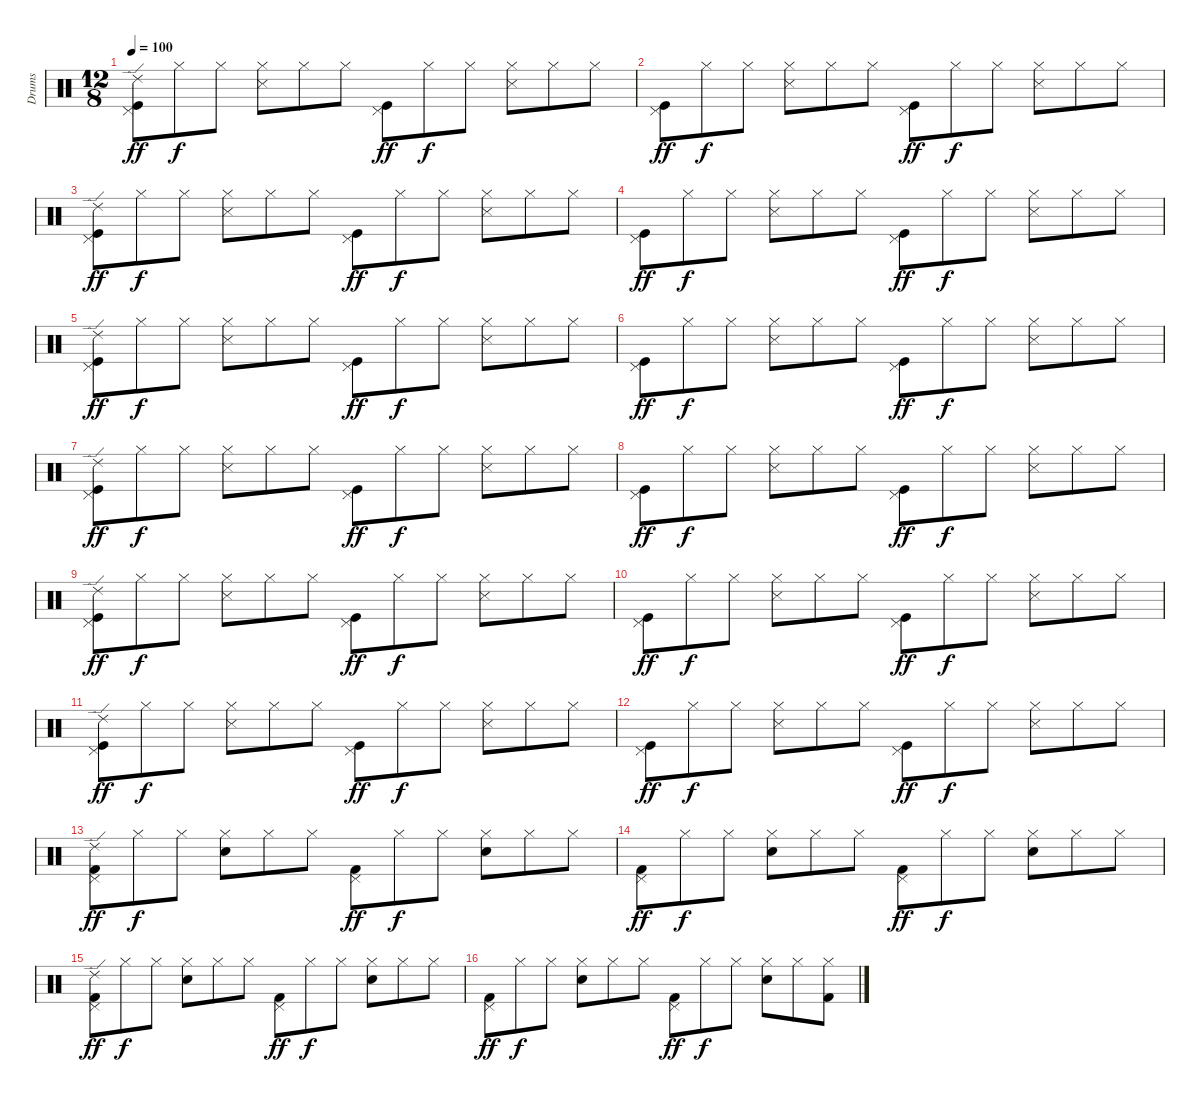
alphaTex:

\track ("Drums" "Drums") {instrument percussion}
\staff {score}
\articulation defaults
\ts (12 8)
\tempo 100
\clef neutral
\ks c
("Pedal Hi-Hat (hit)" "Ride (edge) 2" "Kick (hit)").8{dy ff} "Hi-Hat (closed)".8{dy f} "Hi-Hat (closed)".8 ("Hi-Hat (closed)" "Snare (side stick) 3").8 "Hi-Hat (closed)".8 "Hi-Hat (closed)".8 ("Pedal Hi-Hat (hit)" "Kick (hit)").8{dy ff} "Hi-Hat (closed)".8{dy f} "Hi-Hat (closed)".8 ("Hi-Hat (closed)" "Snare (side stick) 3").8 "Hi-Hat (closed)".8 "Hi-Hat (closed)".8 |
("Pedal Hi-Hat (hit)" "Kick (hit)").8{dy ff} "Hi-Hat (closed)".8{dy f} "Hi-Hat (closed)".8 ("Hi-Hat (closed)" "Snare (side stick) 3").8 "Hi-Hat (closed)".8 "Hi-Hat (closed)".8 ("Pedal Hi-Hat (hit)" "Kick (hit)").8{dy ff} "Hi-Hat (closed)".8{dy f} "Hi-Hat (closed)".8 ("Hi-Hat (closed)" "Snare (side stick) 3").8 "Hi-Hat (closed)".8 "Hi-Hat (closed)".8 |
("Pedal Hi-Hat (hit)" "Ride (edge) 2" "Kick (hit)").8{dy ff} "Hi-Hat (closed)".8{dy f} "Hi-Hat (closed)".8 ("Hi-Hat (closed)" "Snare (side stick) 3").8 "Hi-Hat (closed)".8 "Hi-Hat (closed)".8 ("Pedal Hi-Hat (hit)" "Kick (hit)").8{dy ff} "Hi-Hat (closed)".8{dy f} "Hi-Hat (closed)".8 ("Hi-Hat (closed)" "Snare (side stick) 3").8 "Hi-Hat (closed)".8 "Hi-Hat (closed)".8 |
("Pedal Hi-Hat (hit)" "Kick (hit)").8{dy ff} "Hi-Hat (closed)".8{dy f} "Hi-Hat (closed)".8 ("Hi-Hat (closed)" "Snare (side stick) 3").8 "Hi-Hat (closed)".8 "Hi-Hat (closed)".8 ("Pedal Hi-Hat (hit)" "Kick (hit)").8{dy ff} "Hi-Hat (closed)".8{dy f} "Hi-Hat (closed)".8 ("Hi-Hat (closed)" "Snare (side stick) 3").8 "Hi-Hat (closed)".8 "Hi-Hat (closed)".8 |
("Pedal Hi-Hat (hit)" "Ride (edge) 2" "Kick (hit)").8{dy ff} "Hi-Hat (closed)".8{dy f} "Hi-Hat (closed)".8 ("Hi-Hat (closed)" "Snare (side stick) 3").8 "Hi-Hat (closed)".8 "Hi-Hat (closed)".8 ("Pedal Hi-Hat (hit)" "Kick (hit)").8{dy ff} "Hi-Hat (closed)".8{dy f} "Hi-Hat (closed)".8 ("Hi-Hat (closed)" "Snare (side stick) 3").8 "Hi-Hat (closed)".8 "Hi-Hat (closed)".8 |
("Pedal Hi-Hat (hit)" "Kick (hit)").8{dy ff} "Hi-Hat (closed)".8{dy f} "Hi-Hat (closed)".8 ("Hi-Hat (closed)" "Snare (side stick) 3").8 "Hi-Hat (closed)".8 "Hi-Hat (closed)".8 ("Pedal Hi-Hat (hit)" "Kick (hit)").8{dy ff} "Hi-Hat (closed)".8{dy f} "Hi-Hat (closed)".8 ("Hi-Hat (closed)" "Snare (side stick) 3").8 "Hi-Hat (closed)".8 "Hi-Hat (closed)".8 |
("Pedal Hi-Hat (hit)" "Ride (edge) 2" "Kick (hit)").8{dy ff} "Hi-Hat (closed)".8{dy f} "Hi-Hat (closed)".8 ("Hi-Hat (closed)" "Snare (side stick) 3").8 "Hi-Hat (closed)".8 "Hi-Hat (closed)".8 ("Pedal Hi-Hat (hit)" "Kick (hit)").8{dy ff} "Hi-Hat (closed)".8{dy f} "Hi-Hat (closed)".8 ("Hi-Hat (closed)" "Snare (side stick) 3").8 "Hi-Hat (closed)".8 "Hi-Hat (closed)".8 |
("Pedal Hi-Hat (hit)" "Kick (hit)").8{dy ff} "Hi-Hat (closed)".8{dy f} "Hi-Hat (closed)".8 ("Hi-Hat (closed)" "Snare (side stick) 3").8 "Hi-Hat (closed)".8 "Hi-Hat (closed)".8 ("Pedal Hi-Hat (hit)" "Kick (hit)").8{dy ff} "Hi-Hat (closed)".8{dy f} "Hi-Hat (closed)".8 ("Hi-Hat (closed)" "Snare (side stick) 3").8 "Hi-Hat (closed)".8 "Hi-Hat (closed)".8 |
("Pedal Hi-Hat (hit)" "Ride (edge) 2" "Kick (hit)").8{dy ff} "Hi-Hat (closed)".8{dy f} "Hi-Hat (closed)".8 ("Hi-Hat (closed)" "Snare (side stick) 3").8 "Hi-Hat (closed)".8 "Hi-Hat (closed)".8 ("Pedal Hi-Hat (hit)" "Kick (hit)").8{dy ff} "Hi-Hat (closed)".8{dy f} "Hi-Hat (closed)".8 ("Hi-Hat (closed)" "Snare (side stick) 3").8 "Hi-Hat (closed)".8 "Hi-Hat (closed)".8 |
("Pedal Hi-Hat (hit)" "Kick (hit)").8{dy ff} "Hi-Hat (closed)".8{dy f} "Hi-Hat (closed)".8 ("Hi-Hat (closed)" "Snare (side stick) 3").8 "Hi-Hat (closed)".8 "Hi-Hat (closed)".8 ("Pedal Hi-Hat (hit)" "Kick (hit)").8{dy ff} "Hi-Hat (closed)".8{dy f} "Hi-Hat (closed)".8 ("Hi-Hat (closed)" "Snare (side stick) 3").8 "Hi-Hat (closed)".8 "Hi-Hat (closed)".8 |
("Pedal Hi-Hat (hit)" "Ride (edge) 2" "Kick (hit)").8{dy ff} "Hi-Hat (closed)".8{dy f} "Hi-Hat (closed)".8 ("Hi-Hat (closed)" "Snare (side stick) 3").8 "Hi-Hat (closed)".8 "Hi-Hat (closed)".8 ("Pedal Hi-Hat (hit)" "Kick (hit)").8{dy ff} "Hi-Hat (closed)".8{dy f} "Hi-Hat (closed)".8 ("Hi-Hat (closed)" "Snare (side stick) 3").8 "Hi-Hat (closed)".8 "Hi-Hat (closed)".8 |
("Pedal Hi-Hat (hit)" "Kick (hit)").8{dy ff} "Hi-Hat (closed)".8{dy f} "Hi-Hat (closed)".8 ("Hi-Hat (closed)" "Snare (side stick) 3").8 "Hi-Hat (closed)".8 "Hi-Hat (closed)".8 ("Pedal Hi-Hat (hit)" "Kick (hit)").8{dy ff} "Hi-Hat (closed)".8{dy f} "Hi-Hat (closed)".8 ("Hi-Hat (closed)" "Snare (side stick) 3").8 "Hi-Hat (closed)".8 "Hi-Hat (closed)".8 |
("Pedal Hi-Hat (hit)" "Ride (edge) 2" "Kick (hit) 2").8{dy ff} "Hi-Hat (closed)".8{dy f} "Hi-Hat (closed)".8 ("Hi-Hat (closed)" "Snare (hit) 2").8 "Hi-Hat (closed)".8 "Hi-Hat (closed)".8 ("Pedal Hi-Hat (hit)" "Kick (hit) 2").8{dy ff} "Hi-Hat (closed)".8{dy f} "Hi-Hat (closed)".8 ("Hi-Hat (closed)" "Snare (hit) 2").8 "Hi-Hat (closed)".8 "Hi-Hat (closed)".8 |
("Pedal Hi-Hat (hit)" "Kick (hit) 2").8{dy ff} "Hi-Hat (closed)".8{dy f} "Hi-Hat (closed)".8 ("Hi-Hat (closed)" "Snare (hit) 2").8 "Hi-Hat (closed)".8 "Hi-Hat (closed)".8 ("Pedal Hi-Hat (hit)" "Kick (hit) 2").8{dy ff} "Hi-Hat (closed)".8{dy f} "Hi-Hat (closed)".8 ("Hi-Hat (closed)" "Snare (hit) 2").8 "Hi-Hat (closed)".8 "Hi-Hat (closed)".8 |
("Pedal Hi-Hat (hit)" "Ride (edge) 2" "Kick (hit) 2").8{dy ff} "Hi-Hat (closed)".8{dy f} "Hi-Hat (closed)".8 ("Hi-Hat (closed)" "Snare (hit) 2").8 "Hi-Hat (closed)".8 "Hi-Hat (closed)".8 ("Pedal Hi-Hat (hit)" "Kick (hit) 2").8{dy ff} "Hi-Hat (closed)".8{dy f} "Hi-Hat (closed)".8 ("Hi-Hat (closed)" "Snare (hit) 2").8 "Hi-Hat (closed)".8 "Hi-Hat (closed)".8 |
("Pedal Hi-Hat (hit)" "Kick (hit) 2").8{dy ff} "Hi-Hat (closed)".8{dy f} "Hi-Hat (closed)".8 ("Hi-Hat (closed)" "Snare (hit) 2").8 "Hi-Hat (closed)".8 "Hi-Hat (closed)".8 ("Pedal Hi-Hat (hit)" "Kick (hit) 2").8{dy ff} "Hi-Hat (closed)".8{dy f} "Hi-Hat (closed)".8 ("Hi-Hat (closed)" "Snare (hit) 2").8 "Hi-Hat (closed)".8 ("Hi-Hat (closed)" "Kick (hit) 2").8
